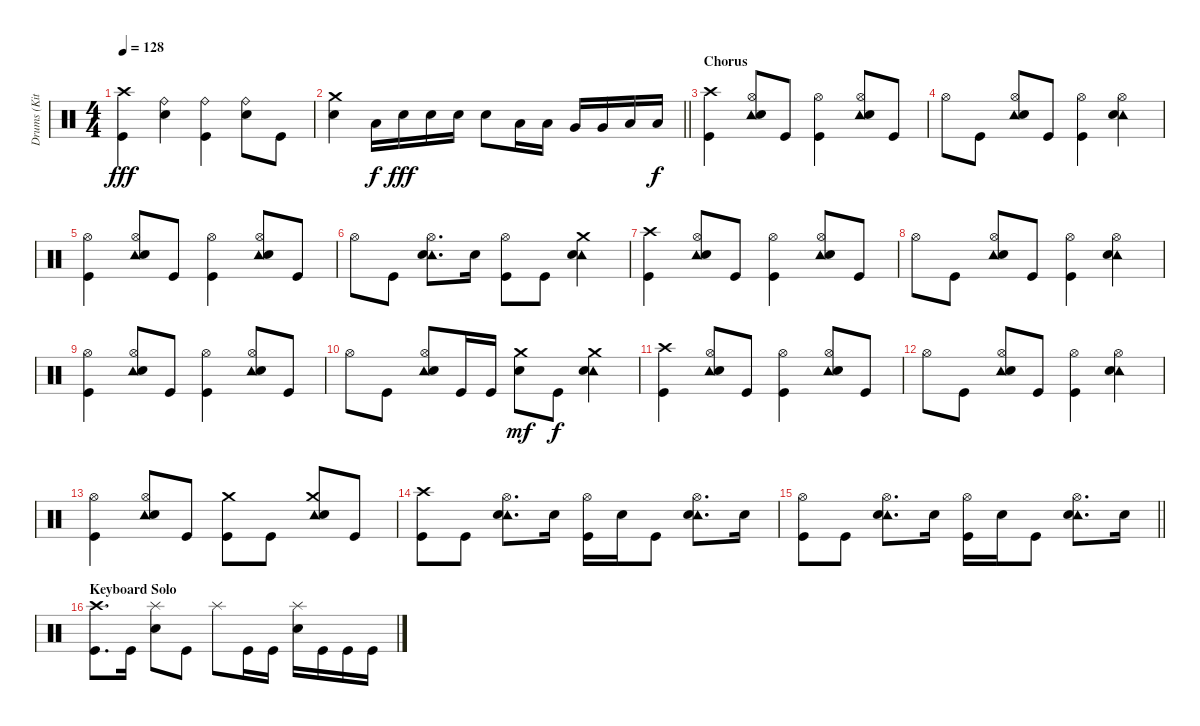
\track ("Drums (Kita)" "Drums (Kit") {instrument percussion}
\staff {score}
\articulation defaults
\ts (4 4)
\tempo 128
\clef neutral
\ks c
("Crash high (hit)" "Kick (hit)").4{dy fff} ("Ride (bell)" "Electric Snare (hit)").4 ("Ride (bell)" "Kick (hit)").4 ("Ride (bell)" "Electric Snare (hit)").8 "Kick (hit)".8 |
\barLineRight lightlight
("Crash medium (hit)" "Electric Snare (hit)").4 "Low Tom (hit)".16{dy f} "Electric Snare (hit)".16{dy fff} "Electric Snare (hit)".16 "Electric Snare (hit)".16 "Electric Snare (hit)".8 "Low Tom (hit)".16 "Low Tom (hit)".16 "Very Low Tom (hit)".16 "Very Low Tom (hit)".16 "Low Floor Tom (hit)".16 "Low Floor Tom (hit)".16{dy f} |
\section ("" "Chorus")
("Crash high (hit)" "Kick (hit)").4 ("Hi-Hat (open)" "Tambourine (hit)" "Electric Snare (hit)").8 "Kick (hit)".8 ("Hi-Hat (open)" "Kick (hit)").4 ("Hi-Hat (open)" "Tambourine (hit)" "Electric Snare (hit)").8 "Kick (hit)".8 |
"Hi-Hat (open)".8 "Kick (hit)".8 ("Hi-Hat (open)" "Tambourine (hit)" "Electric Snare (hit)").8 "Kick (hit)".8 ("Hi-Hat (open)" "Kick (hit)").4 ("Hi-Hat (open)" "Tambourine (hit)" "Electric Snare (hit)").4 |
("Hi-Hat (open)" "Kick (hit)").4 ("Hi-Hat (open)" "Tambourine (hit)" "Electric Snare (hit)").8 "Kick (hit)".8 ("Hi-Hat (open)" "Kick (hit)").4 ("Hi-Hat (open)" "Tambourine (hit)" "Electric Snare (hit)").8 "Kick (hit)".8 |
"Hi-Hat (open)".8 "Kick (hit)".8 ("Hi-Hat (open)" "Tambourine (hit)" "Electric Snare (hit)").8{d} "Electric Snare (hit)".16 ("Hi-Hat (open)" "Kick (hit)").8 "Kick (hit)".8 ("Crash medium (hit)" "Tambourine (hit)" "Electric Snare (hit)").4 |
("Crash high (hit)" "Kick (hit)").4 ("Hi-Hat (open)" "Tambourine (hit)" "Electric Snare (hit)").8 "Kick (hit)".8 ("Hi-Hat (open)" "Kick (hit)").4 ("Hi-Hat (open)" "Tambourine (hit)" "Electric Snare (hit)").8 "Kick (hit)".8 |
"Hi-Hat (open)".8 "Kick (hit)".8 ("Hi-Hat (open)" "Tambourine (hit)" "Electric Snare (hit)").8 "Kick (hit)".8 ("Hi-Hat (open)" "Kick (hit)").4 ("Hi-Hat (open)" "Tambourine (hit)" "Electric Snare (hit)").4 |
("Hi-Hat (open)" "Kick (hit)").4 ("Hi-Hat (open)" "Tambourine (hit)" "Electric Snare (hit)").8 "Kick (hit)".8 ("Hi-Hat (open)" "Kick (hit)").4 ("Hi-Hat (open)" "Tambourine (hit)" "Electric Snare (hit)").8 "Kick (hit)".8 |
"Hi-Hat (open)".8 "Kick (hit)".8 ("Hi-Hat (open)" "Tambourine (hit)" "Electric Snare (hit)").8 "Kick (hit)".16 "Kick (hit)".16 ("Crash medium (hit)" "Electric Snare (hit)").8{dy mf} "Kick (hit)".8{dy f} ("Crash medium (hit)" "Tambourine (hit)" "Electric Snare (hit)").4 |
("Crash high (hit)" "Kick (hit)").4 ("Hi-Hat (open)" "Tambourine (hit)" "Electric Snare (hit)").8 "Kick (hit)".8 ("Hi-Hat (open)" "Kick (hit)").4 ("Hi-Hat (open)" "Tambourine (hit)" "Electric Snare (hit)").8 "Kick (hit)".8 |
"Hi-Hat (open)".8 "Kick (hit)".8 ("Hi-Hat (open)" "Tambourine (hit)" "Electric Snare (hit)").8 "Kick (hit)".8 ("Hi-Hat (open)" "Kick (hit)").4 ("Hi-Hat (open)" "Tambourine (hit)" "Electric Snare (hit)").4 |
("Hi-Hat (open)" "Kick (hit)").4 ("Hi-Hat (open)" "Tambourine (hit)" "Electric Snare (hit)").8 "Kick (hit)".8 ("Crash medium (hit)" "Kick (hit)").8 "Kick (hit)".8 ("Crash medium (hit)" "Tambourine (hit)" "Electric Snare (hit)").8 "Kick (hit)".8 |
("Crash high (hit)" "Kick (hit)").8 "Kick (hit)".8 ("Hi-Hat (open)" "Tambourine (hit)" "Electric Snare (hit)").8{d} "Electric Snare (hit)".16 ("Hi-Hat (open)" "Kick (hit)").16 "Electric Snare (hit)".16 "Kick (hit)".8 ("Hi-Hat (open)" "Tambourine (hit)" "Electric Snare (hit)").8{d} "Electric Snare (hit)".16 |
\barLineRight lightlight
("Hi-Hat (open)" "Kick (hit)").8 "Kick (hit)".8 ("Hi-Hat (open)" "Tambourine (hit)" "Electric Snare (hit)").8{d} "Electric Snare (hit)".16 ("Hi-Hat (open)" "Kick (hit)").16 "Electric Snare (hit)".16 "Kick (hit)".8 ("Hi-Hat (open)" "Tambourine (hit)" "Electric Snare (hit)").8{d} "Electric Snare (hit)".16 |
\section ("" "Keyboard Solo")
("Crash high (hit)" "Kick (hit)").8{d} "Kick (hit)".16 ("Splash (hit)" "Electric Snare (hit)").8 "Kick (hit)".8 "Splash (hit)".8 "Kick (hit)".16 "Kick (hit)".16 ("Splash (hit)" "Electric Snare (hit)").16 "Kick (hit)".16 "Kick (hit)".16 "Kick (hit)".16
